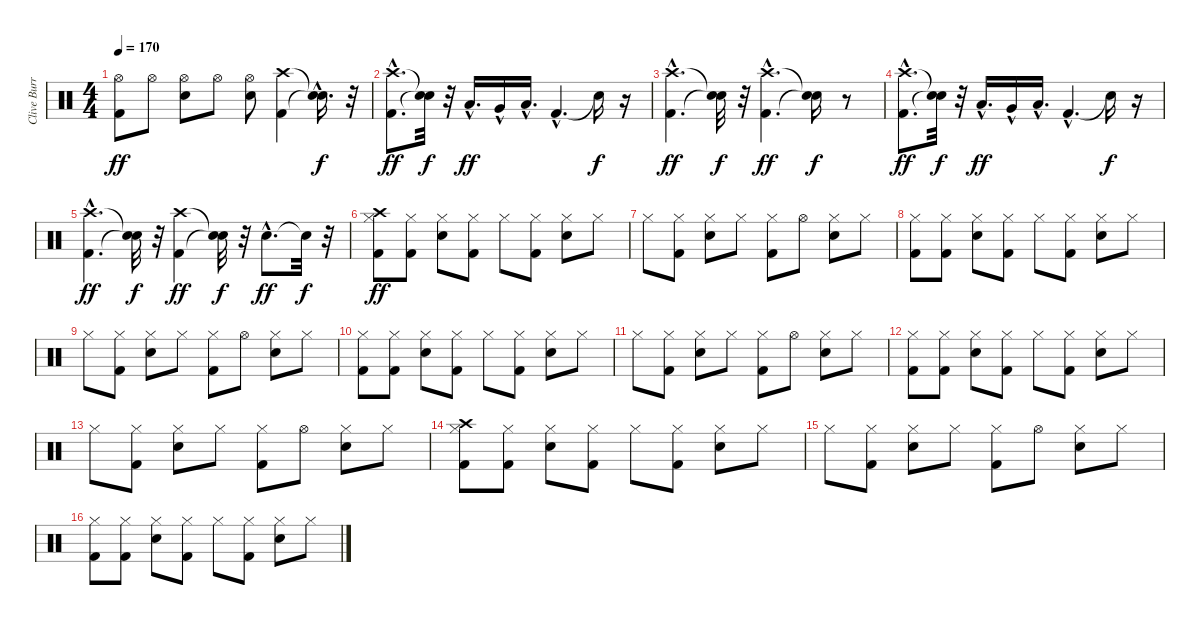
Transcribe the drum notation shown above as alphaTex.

\track ("Clive Burr" "Clive Burr") {instrument percussion}
\staff {score}
\articulation defaults
\ts (4 4)
\tempo 170
\clef neutral
\ks c
("Kick (hit) 2" "Hi-Hat (open)").8{dy ff} "Hi-Hat (open)".8 ("Snare (hit) 2" "Hi-Hat (open)").8 "Hi-Hat (open)".8 ("Snare (hit) 2" "Hi-Hat (open)").8 ("Kick (hit) 2" "Crash high (hit)").4 ("Snare (hit)"{hac t} "Snare (hit)"{hac t}).16{d dy f} r.32 |
("Kick (hit) 2"{hac} "Crash high (hit)"{hac}).8{d dy ff} ("Snare (hit)"{t} "Snare (hit)"{t}).32{dy f} r.32 "Low Tom (hit)"{hac}.16{d dy ff} "Very Low Tom (hit)"{hac}.16 "Low Floor Tom (hit)"{hac}.16{d} "Kick (hit) 2"{hac}.4{d} "Snare (hit)"{t}.16{dy f} r.16 |
("Kick (hit) 2"{hac} "Crash high (hit)"{hac}).4{d dy ff} ("Snare (hit)"{t} "Snare (hit)"{t}).32{dy f} r.32 ("Kick (hit) 2"{hac} "Crash high (hit)"{hac}).4{d dy ff} ("Snare (hit)"{t} "Snare (hit)"{t}).16{dy f} r.8 |
("Kick (hit) 2"{hac} "Crash high (hit)"{hac}).8{d dy ff} ("Snare (hit)"{t} "Snare (hit)"{t}).32{dy f} r.32 "Low Tom (hit)"{hac}.16{d dy ff} "Very Low Tom (hit)"{hac}.16 "Low Floor Tom (hit)"{hac}.16{d} "Kick (hit) 2"{hac}.4{d} "Snare (hit)"{t}.16{dy f} r.16 |
("Kick (hit) 2"{hac} "Crash high (hit)"{hac}).4{d dy ff} ("Snare (hit)"{t} "Snare (hit)"{t}).32{dy f} r.32 ("Kick (hit) 2" "Crash high (hit)").4{dy ff} ("Snare (hit)"{t} "Snare (hit)"{t}).32{dy f} r.32 "Snare (hit) 2"{hac}.8{d dy ff} "Snare (hit)"{t}.32{dy f} r.32 |
("Kick (hit) 2" "Hi-Hat (closed)" "Crash high (hit)").8{dy ff} ("Kick (hit) 2" "Hi-Hat (closed)").8 ("Snare (hit) 2" "Hi-Hat (closed)").8 ("Kick (hit) 2" "Hi-Hat (closed)").8 "Hi-Hat (closed)".8 ("Kick (hit) 2" "Hi-Hat (closed)").8 ("Snare (hit) 2" "Hi-Hat (closed)").8 "Hi-Hat (closed)".8 |
"Hi-Hat (closed)".8 ("Kick (hit) 2" "Hi-Hat (closed)").8 ("Snare (hit) 2" "Hi-Hat (closed)").8 "Hi-Hat (closed)".8 ("Kick (hit) 2" "Hi-Hat (closed)").8 "Hi-Hat (open)".8 ("Snare (hit) 2" "Hi-Hat (closed)").8 "Hi-Hat (closed)".8 |
("Kick (hit) 2" "Hi-Hat (closed)").8 ("Kick (hit) 2" "Hi-Hat (closed)").8 ("Snare (hit) 2" "Hi-Hat (closed)").8 ("Kick (hit) 2" "Hi-Hat (closed)").8 "Hi-Hat (closed)".8 ("Kick (hit) 2" "Hi-Hat (closed)").8 ("Snare (hit) 2" "Hi-Hat (closed)").8 "Hi-Hat (closed)".8 |
"Hi-Hat (closed)".8 ("Kick (hit) 2" "Hi-Hat (closed)").8 ("Snare (hit) 2" "Hi-Hat (closed)").8 "Hi-Hat (closed)".8 ("Kick (hit) 2" "Hi-Hat (closed)").8 "Hi-Hat (open)".8 ("Snare (hit) 2" "Hi-Hat (closed)").8 "Hi-Hat (closed)".8 |
("Kick (hit) 2" "Hi-Hat (closed)").8 ("Kick (hit) 2" "Hi-Hat (closed)").8 ("Snare (hit) 2" "Hi-Hat (closed)").8 ("Kick (hit) 2" "Hi-Hat (closed)").8 "Hi-Hat (closed)".8 ("Kick (hit) 2" "Hi-Hat (closed)").8 ("Snare (hit) 2" "Hi-Hat (closed)").8 "Hi-Hat (closed)".8 |
"Hi-Hat (closed)".8 ("Kick (hit) 2" "Hi-Hat (closed)").8 ("Snare (hit) 2" "Hi-Hat (closed)").8 "Hi-Hat (closed)".8 ("Kick (hit) 2" "Hi-Hat (closed)").8 "Hi-Hat (open)".8 ("Snare (hit) 2" "Hi-Hat (closed)").8 "Hi-Hat (closed)".8 |
("Kick (hit) 2" "Hi-Hat (closed)").8 ("Kick (hit) 2" "Hi-Hat (closed)").8 ("Snare (hit) 2" "Hi-Hat (closed)").8 ("Kick (hit) 2" "Hi-Hat (closed)").8 "Hi-Hat (closed)".8 ("Kick (hit) 2" "Hi-Hat (closed)").8 ("Snare (hit) 2" "Hi-Hat (closed)").8 "Hi-Hat (closed)".8 |
"Hi-Hat (closed)".8 ("Kick (hit) 2" "Hi-Hat (closed)").8 ("Snare (hit) 2" "Hi-Hat (closed)").8 "Hi-Hat (closed)".8 ("Kick (hit) 2" "Hi-Hat (closed)").8 "Hi-Hat (open)".8 ("Snare (hit) 2" "Hi-Hat (closed)").8 "Hi-Hat (closed)".8 |
("Kick (hit) 2" "Hi-Hat (closed)" "Crash high (hit)").8 ("Kick (hit) 2" "Hi-Hat (closed)").8 ("Snare (hit) 2" "Hi-Hat (closed)").8 ("Kick (hit) 2" "Hi-Hat (closed)").8 "Hi-Hat (closed)".8 ("Kick (hit) 2" "Hi-Hat (closed)").8 ("Snare (hit) 2" "Hi-Hat (closed)").8 "Hi-Hat (closed)".8 |
"Hi-Hat (closed)".8 ("Kick (hit) 2" "Hi-Hat (closed)").8 ("Snare (hit) 2" "Hi-Hat (closed)").8 "Hi-Hat (closed)".8 ("Kick (hit) 2" "Hi-Hat (closed)").8 "Hi-Hat (open)".8 ("Snare (hit) 2" "Hi-Hat (closed)").8 "Hi-Hat (closed)".8 |
("Kick (hit) 2" "Hi-Hat (closed)").8 ("Kick (hit) 2" "Hi-Hat (closed)").8 ("Snare (hit) 2" "Hi-Hat (closed)").8 ("Kick (hit) 2" "Hi-Hat (closed)").8 "Hi-Hat (closed)".8 ("Kick (hit) 2" "Hi-Hat (closed)").8 ("Snare (hit) 2" "Hi-Hat (closed)").8 "Hi-Hat (closed)".8
